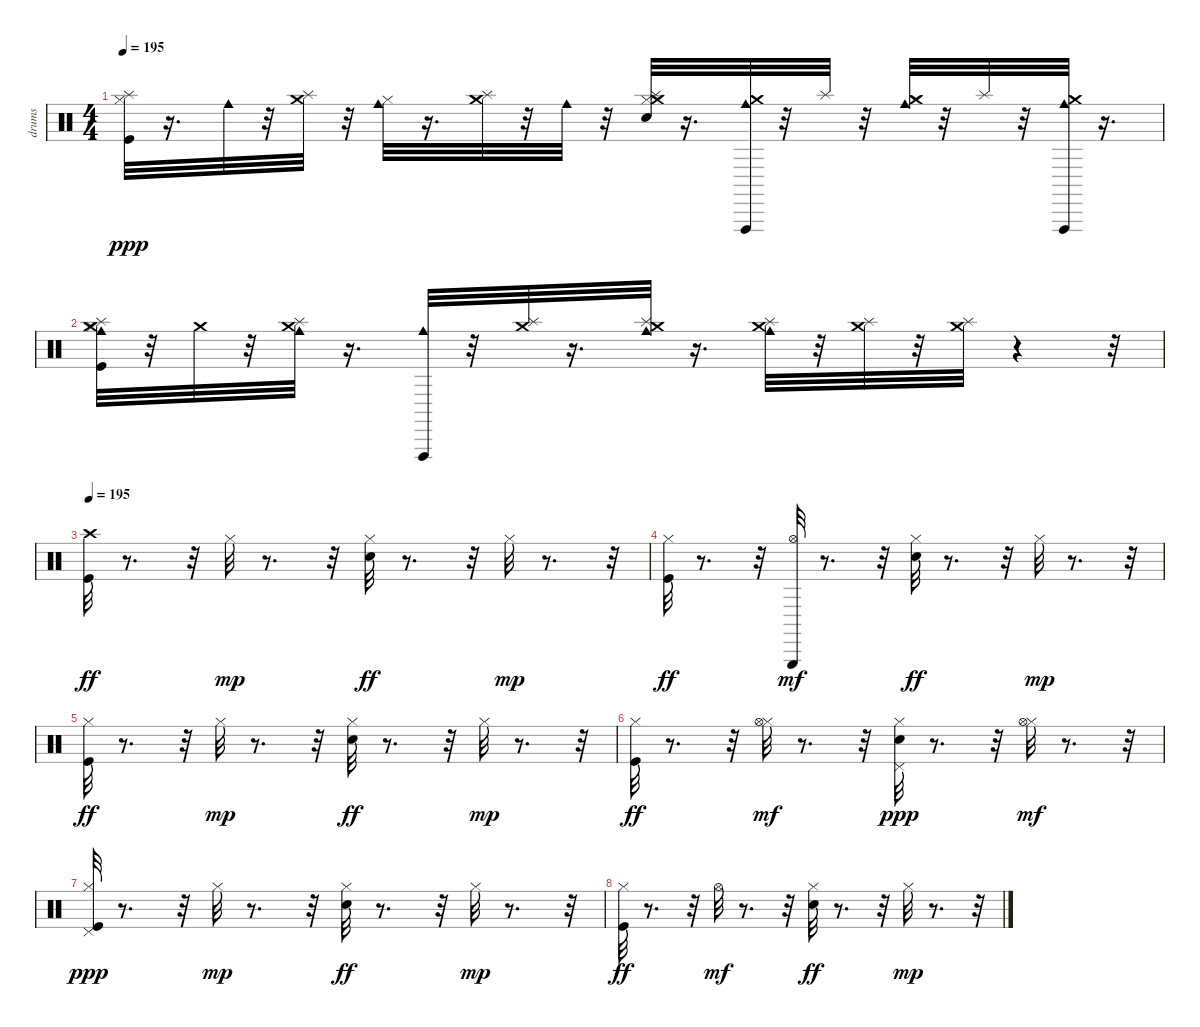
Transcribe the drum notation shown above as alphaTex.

\track ("drums" "drums") {instrument percussion}
\staff {score}
\articulation defaults
\ts (4 4)
\tempo 195
\clef neutral
\ks c
("Kick (hit)" "Hi-Hat (closed)" "Splash (hit)").32{dy ppp} r.16{d} "Cowbell medium (hit)".32 r.32 ("Crash medium (hit)" "Splash (hit)").32 r.32 ("Hi-Hat (closed)" "Cowbell medium (hit)").32 r.16{d} ("Splash (hit)" "Crash medium (hit)").32 r.32 "Cowbell medium (hit)".32 r.32 ("Snare (hit) 2" "Hi-Hat (closed)" "Crash medium (hit)" "Splash (hit)").32 r.16{d} ("Vibraslap (hit)" "Cowbell medium (hit)" "Crash medium (hit)").32 r.32 "Splash (hit)".32 r.32 ("Hi-Hat (closed)" "Cowbell medium (hit)" "Crash medium (hit)").32 r.32 "Splash (hit)".32 r.32 ("Cowbell medium (hit)" "Crash medium (hit)" "Vibraslap (hit)").32 r.16{d} |
("Hi-Hat (closed)" "Kick (hit)" "Splash (hit)" "Cowbell medium (hit)" "Crash medium (hit)").32 r.32 "Crash medium (hit)".32 r.32 ("Crash medium (hit)" "Cowbell medium (hit)" "Splash (hit)").32 r.16{d} ("Cowbell medium (hit)" "Vibraslap (hit)").32 r.32 ("Splash (hit)" "Crash medium (hit)").32 r.16{d} ("Splash (hit)" "Cowbell medium (hit)" "Crash medium (hit)").32 r.16{d} ("Splash (hit)" "Cowbell medium (hit)" "Crash medium (hit)").32 r.32 ("Crash medium (hit)" "Splash (hit)").32 r.32 ("Crash medium (hit)" "Splash (hit)").32 r.4 r.32 |
\tempo 195
("Kick (hit)" "Crash high (hit)").32{dy ff} r.8{d} r.32 "Hi-Hat (closed)".32{dy mp} r.8{d} r.32 ("Hi-Hat (closed)" "Snare (hit) 2").32{dy ff} r.8{d} r.32 "Hi-Hat (closed)".32{dy mp} r.8{d} r.32 |
("Hi-Hat (closed)" "Kick (hit)").32{dy ff} r.8{d} r.32 ("Triangle (hit)" "Hi-Hat (open)").32{dy mf} r.8{d} r.32 ("Snare (hit) 2" "Hi-Hat (closed)").32{dy ff} r.8{d} r.32 "Hi-Hat (closed)".32{dy mp} r.8{d} r.32 |
("Hi-Hat (closed)" "Kick (hit)").32{dy ff} r.8{d} r.32 "Hi-Hat (closed)".32{dy mp} r.8{d} r.32 ("Hi-Hat (closed)" "Snare (hit) 2").32{dy ff} r.8{d} r.32 "Hi-Hat (closed)".32{dy mp} r.8{d} r.32 |
("Kick (hit)" "Hi-Hat (closed)").32{dy ff} r.8{d} r.32 ("Hi-Hat (closed)" "Hi-Hat (open)").32{dy mf} r.8{d} r.32 ("Snare (hit) 2" "Hi-Hat (closed)" "Pedal Hi-Hat (hit)").32{dy ppp} r.8{d} r.32 ("Hi-Hat (closed)" "Hi-Hat (open)").32{dy mf} r.8{d} r.32 |
("Kick (hit)" "Hi-Hat (closed)" "Pedal Hi-Hat (hit)").32{dy ppp} r.8{d} r.32 "Hi-Hat (closed)".32{dy mp} r.8{d} r.32 ("Snare (hit) 2" "Hi-Hat (closed)").32{dy ff} r.8{d} r.32 "Hi-Hat (closed)".32{dy mp} r.8{d} r.32 |
("Hi-Hat (closed)" "Kick (hit)").32{dy ff} r.8{d} r.32 "Hi-Hat (open)".32{dy mf} r.8{d} r.32 ("Snare (hit) 2" "Hi-Hat (closed)").32{dy ff} r.8{d} r.32 "Hi-Hat (closed)".32{dy mp} r.8{d} r.32
